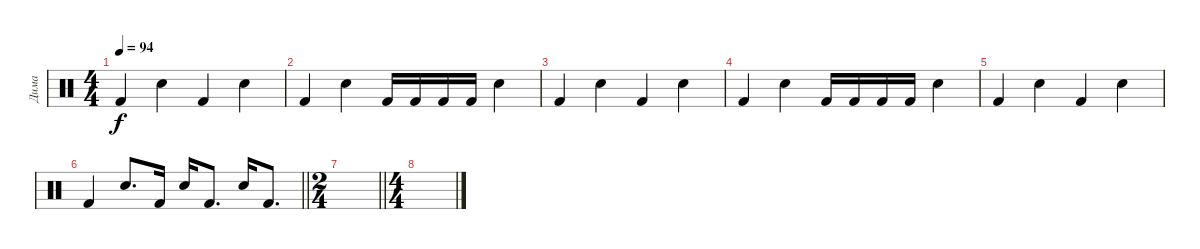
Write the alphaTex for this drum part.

\track ("Дима" "Дима") {instrument percussion}
\staff {score}
\articulation defaults
\ts (4 4)
\tempo 94
\clef neutral
\ks c "Kick (hit) 2".4{dy f} "Snare (hit) 2".4 "Kick (hit) 2".4 "Snare (hit) 2".4
|
"Kick (hit) 2".4 "Snare (hit) 2".4 "Kick (hit) 2".16 "Kick (hit) 2".16 "Kick (hit) 2".16 "Kick (hit) 2".16 "Snare (hit) 2".4 |
"Kick (hit) 2".4 "Snare (hit) 2".4 "Kick (hit) 2".4 "Snare (hit) 2".4 |
"Kick (hit) 2".4 "Snare (hit) 2".4 "Kick (hit) 2".16 "Kick (hit) 2".16 "Kick (hit) 2".16 "Kick (hit) 2".16 "Snare (hit) 2".4 |
"Kick (hit) 2".4 "Snare (hit) 2".4 "Kick (hit) 2".4 "Snare (hit) 2".4 |
\barLineRight lightlight "Kick (hit) 2".4 "Snare (hit) 2".8{d} "Kick (hit) 2".16 "Snare (hit) 2".16 "Kick (hit) 2".8{d} "Snare (hit) 2".16 "Kick (hit) 2".8{d}
|
\ts (2 4)
\barLineRight lightlight
|
\ts (4 4)
